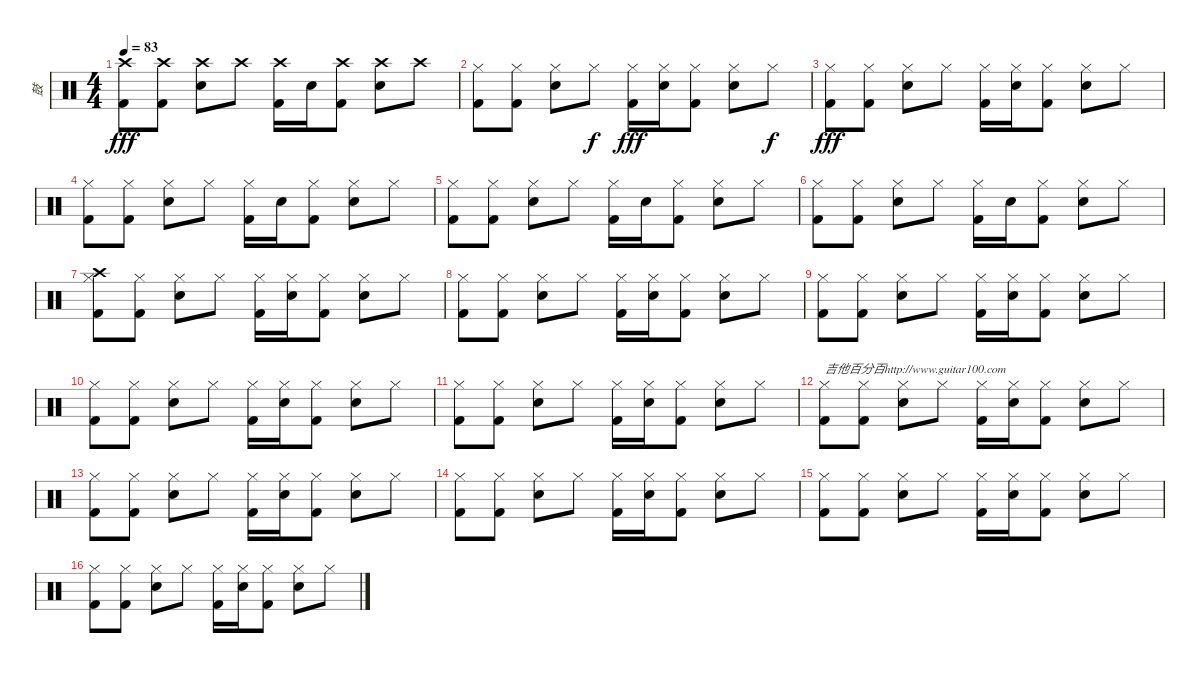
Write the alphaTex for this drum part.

\track ("鼓" "鼓") {instrument percussion}
\staff {score}
\articulation defaults
\ts (4 4)
\tempo 83
\clef neutral
\ks c
("Crash high (hit)" "Kick (hit) 2").8{dy fff} ("Crash high (hit)" "Kick (hit) 2").8 ("Crash high (hit)" "Electric Snare (hit)").8 "Crash high (hit)".8 ("Crash high (hit)" "Kick (hit) 2").16 "Electric Snare (hit)".16 ("Crash high (hit)" "Kick (hit) 2").8 ("Crash high (hit)" "Electric Snare (hit)").8 "Crash high (hit)".8 |
("Hi-Hat (closed)" "Kick (hit) 2").8 ("Hi-Hat (closed)" "Kick (hit) 2").8 ("Hi-Hat (closed)" "Electric Snare (hit)").8 "Hi-Hat (closed)".8{dy f} ("Hi-Hat (closed)" "Kick (hit) 2").16{dy fff} ("Hi-Hat (closed)" "Electric Snare (hit)").16 ("Hi-Hat (closed)" "Kick (hit) 2").8 ("Hi-Hat (closed)" "Electric Snare (hit)").8 "Hi-Hat (closed)".8{dy f} |
("Hi-Hat (closed)" "Kick (hit) 2").8{dy fff} ("Hi-Hat (closed)" "Kick (hit) 2").8 ("Hi-Hat (closed)" "Electric Snare (hit)").8 "Hi-Hat (closed)".8 ("Hi-Hat (closed)" "Kick (hit) 2").16 ("Hi-Hat (closed)" "Electric Snare (hit)").16 ("Hi-Hat (closed)" "Kick (hit) 2").8 ("Hi-Hat (closed)" "Electric Snare (hit)").8 "Hi-Hat (closed)".8 |
("Hi-Hat (closed)" "Kick (hit) 2").8 ("Hi-Hat (closed)" "Kick (hit) 2").8 ("Hi-Hat (closed)" "Electric Snare (hit)").8 "Hi-Hat (closed)".8 ("Hi-Hat (closed)" "Kick (hit) 2").16 "Electric Snare (hit)".16 ("Hi-Hat (closed)" "Kick (hit) 2").8 ("Hi-Hat (closed)" "Electric Snare (hit)").8 "Hi-Hat (closed)".8 |
("Hi-Hat (closed)" "Kick (hit) 2").8 ("Hi-Hat (closed)" "Kick (hit) 2").8 ("Hi-Hat (closed)" "Electric Snare (hit)").8 "Hi-Hat (closed)".8 ("Hi-Hat (closed)" "Kick (hit) 2").16 "Electric Snare (hit)".16 ("Hi-Hat (closed)" "Kick (hit) 2").8 ("Hi-Hat (closed)" "Electric Snare (hit)").8 "Hi-Hat (closed)".8 |
("Hi-Hat (closed)" "Kick (hit) 2").8 ("Hi-Hat (closed)" "Kick (hit) 2").8 ("Hi-Hat (closed)" "Electric Snare (hit)").8 "Hi-Hat (closed)".8 ("Hi-Hat (closed)" "Kick (hit) 2").16 "Electric Snare (hit)".16 ("Hi-Hat (closed)" "Kick (hit) 2").8 ("Hi-Hat (closed)" "Electric Snare (hit)").8 "Hi-Hat (closed)".8 |
("Crash high (hit)" "Hi-Hat (closed)" "Kick (hit) 2").8 ("Hi-Hat (closed)" "Kick (hit) 2").8 ("Hi-Hat (closed)" "Electric Snare (hit)").8 "Hi-Hat (closed)".8 ("Hi-Hat (closed)" "Kick (hit) 2").16 ("Hi-Hat (closed)" "Electric Snare (hit)").16 ("Hi-Hat (closed)" "Kick (hit) 2").8 ("Hi-Hat (closed)" "Electric Snare (hit)").8 "Hi-Hat (closed)".8 |
("Hi-Hat (closed)" "Kick (hit) 2").8 ("Hi-Hat (closed)" "Kick (hit) 2").8 ("Hi-Hat (closed)" "Electric Snare (hit)").8 "Hi-Hat (closed)".8 ("Hi-Hat (closed)" "Kick (hit) 2").16 ("Hi-Hat (closed)" "Electric Snare (hit)").16 ("Hi-Hat (closed)" "Kick (hit) 2").8 ("Hi-Hat (closed)" "Electric Snare (hit)").8 "Hi-Hat (closed)".8 |
("Hi-Hat (closed)" "Kick (hit) 2").8 ("Hi-Hat (closed)" "Kick (hit) 2").8 ("Hi-Hat (closed)" "Electric Snare (hit)").8 "Hi-Hat (closed)".8 ("Hi-Hat (closed)" "Kick (hit) 2").16 ("Hi-Hat (closed)" "Electric Snare (hit)").16 ("Hi-Hat (closed)" "Kick (hit) 2").8 ("Hi-Hat (closed)" "Electric Snare (hit)").8 "Hi-Hat (closed)".8 |
("Hi-Hat (closed)" "Kick (hit) 2").8 ("Hi-Hat (closed)" "Kick (hit) 2").8 ("Hi-Hat (closed)" "Electric Snare (hit)").8 "Hi-Hat (closed)".8 ("Hi-Hat (closed)" "Kick (hit) 2").16 ("Hi-Hat (closed)" "Electric Snare (hit)").16 ("Hi-Hat (closed)" "Kick (hit) 2").8 ("Hi-Hat (closed)" "Electric Snare (hit)").8 "Hi-Hat (closed)".8 |
("Hi-Hat (closed)" "Kick (hit) 2").8 ("Hi-Hat (closed)" "Kick (hit) 2").8 ("Hi-Hat (closed)" "Electric Snare (hit)").8 "Hi-Hat (closed)".8 ("Hi-Hat (closed)" "Kick (hit) 2").16 ("Hi-Hat (closed)" "Electric Snare (hit)").16 ("Hi-Hat (closed)" "Kick (hit) 2").8 ("Hi-Hat (closed)" "Electric Snare (hit)").8 "Hi-Hat (closed)".8 |
("Hi-Hat (closed)" "Kick (hit) 2").8{txt "吉他百分百http://www.guitar100.com"} ("Hi-Hat (closed)" "Kick (hit) 2").8 ("Hi-Hat (closed)" "Electric Snare (hit)").8 "Hi-Hat (closed)".8 ("Hi-Hat (closed)" "Kick (hit) 2").16 ("Hi-Hat (closed)" "Electric Snare (hit)").16 ("Hi-Hat (closed)" "Kick (hit) 2").8 ("Hi-Hat (closed)" "Electric Snare (hit)").8 "Hi-Hat (closed)".8 |
("Hi-Hat (closed)" "Kick (hit) 2").8 ("Hi-Hat (closed)" "Kick (hit) 2").8 ("Hi-Hat (closed)" "Electric Snare (hit)").8 "Hi-Hat (closed)".8 ("Hi-Hat (closed)" "Kick (hit) 2").16 ("Hi-Hat (closed)" "Electric Snare (hit)").16 ("Hi-Hat (closed)" "Kick (hit) 2").8 ("Hi-Hat (closed)" "Electric Snare (hit)").8 "Hi-Hat (closed)".8 |
("Hi-Hat (closed)" "Kick (hit) 2").8 ("Hi-Hat (closed)" "Kick (hit) 2").8 ("Hi-Hat (closed)" "Electric Snare (hit)").8 "Hi-Hat (closed)".8 ("Hi-Hat (closed)" "Kick (hit) 2").16 ("Hi-Hat (closed)" "Electric Snare (hit)").16 ("Hi-Hat (closed)" "Kick (hit) 2").8 ("Hi-Hat (closed)" "Electric Snare (hit)").8 "Hi-Hat (closed)".8 |
("Hi-Hat (closed)" "Kick (hit) 2").8 ("Hi-Hat (closed)" "Kick (hit) 2").8 ("Hi-Hat (closed)" "Electric Snare (hit)").8 "Hi-Hat (closed)".8 ("Hi-Hat (closed)" "Kick (hit) 2").16 ("Hi-Hat (closed)" "Electric Snare (hit)").16 ("Hi-Hat (closed)" "Kick (hit) 2").8 ("Hi-Hat (closed)" "Electric Snare (hit)").8 "Hi-Hat (closed)".8 |
("Hi-Hat (closed)" "Kick (hit) 2").8 ("Hi-Hat (closed)" "Kick (hit) 2").8 ("Hi-Hat (closed)" "Electric Snare (hit)").8 "Hi-Hat (closed)".8 ("Hi-Hat (closed)" "Kick (hit) 2").16 ("Hi-Hat (closed)" "Electric Snare (hit)").16 ("Hi-Hat (closed)" "Kick (hit) 2").8 ("Hi-Hat (closed)" "Electric Snare (hit)").8 "Hi-Hat (closed)".8
